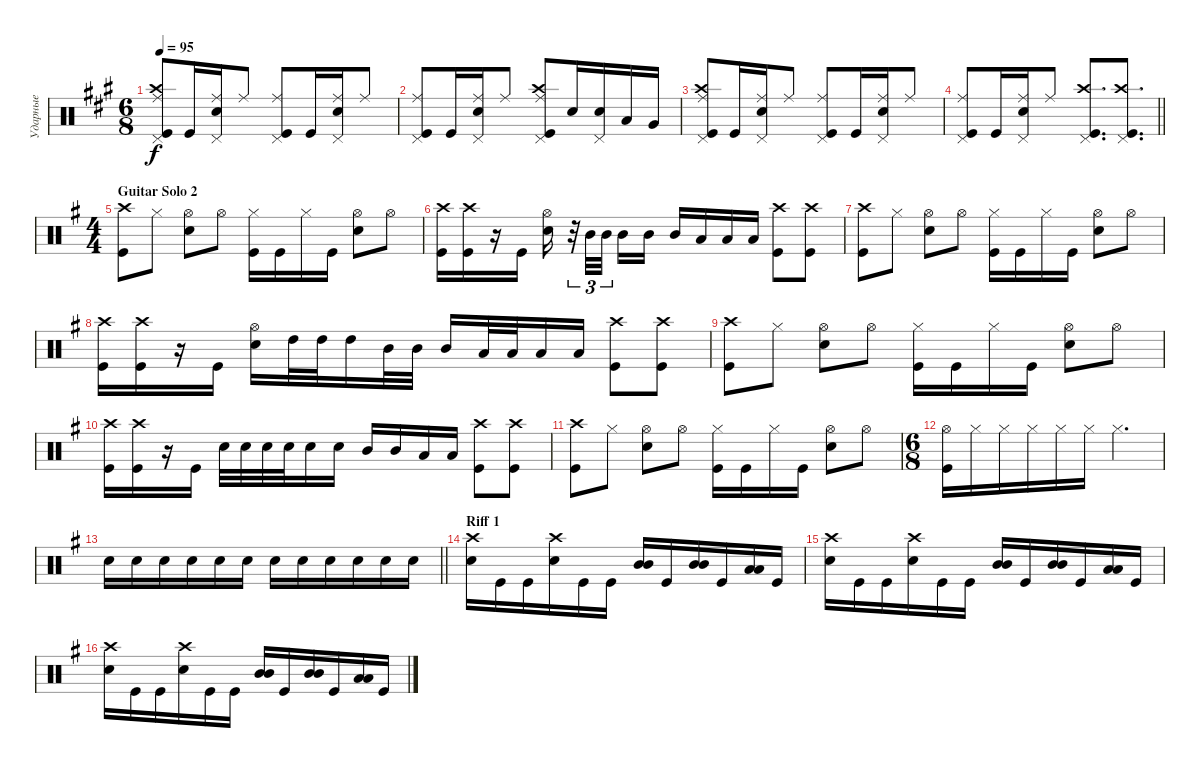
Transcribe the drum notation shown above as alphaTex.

\track ("Ударные" "Ударные") {instrument percussion}
\staff {score}
\articulation defaults
\ts (6 8)
\tempo 95
\clef neutral
\ks f#minor
("Kick (hit)" "Crash high (hit)" "Ride (middle)" "Pedal Hi-Hat (hit)").8{dy f} "Kick (hit)".16 ("Snare (hit) 2" "Ride (middle)" "Pedal Hi-Hat (hit)").16 "Ride (middle)".8 ("Kick (hit)" "Ride (middle)" "Pedal Hi-Hat (hit)").8 "Kick (hit)".16 ("Snare (hit) 2" "Ride (middle)" "Pedal Hi-Hat (hit)").16 "Ride (middle)".8 |
("Kick (hit)" "Pedal Hi-Hat (hit)" "Ride (middle)").8 "Kick (hit)".16 ("Snare (hit) 2" "Ride (middle)" "Pedal Hi-Hat (hit)").16 "Ride (middle)".8 ("Kick (hit)" "Ride (middle)" "Crash high (hit)" "Pedal Hi-Hat (hit)").8 "Snare (hit) 2".16 ("Snare (hit) 2" "Pedal Hi-Hat (hit)").16 "Low Tom (hit)".16 "Very Low Tom (hit)".16 |
("Kick (hit)" "Crash high (hit)" "Ride (middle)" "Pedal Hi-Hat (hit)").8 "Kick (hit)".16 ("Snare (hit) 2" "Ride (middle)" "Pedal Hi-Hat (hit)").16 "Ride (middle)".8 ("Kick (hit)" "Ride (middle)" "Pedal Hi-Hat (hit)").8 "Kick (hit)".16 ("Snare (hit) 2" "Ride (middle)" "Pedal Hi-Hat (hit)").16 "Ride (middle)".8 |
\barLineRight lightlight
("Kick (hit)" "Pedal Hi-Hat (hit)" "Ride (middle)").8 "Kick (hit)".16 ("Snare (hit) 2" "Ride (middle)" "Pedal Hi-Hat (hit)").16 "Ride (middle)".8 ("Kick (hit)" "Crash high (hit)" "Pedal Hi-Hat (hit)").8{d} ("Kick (hit)" "Crash high (hit)" "Pedal Hi-Hat (hit)").8{d} |
\ts (4 4)
\section ("" "Guitar Solo 2")
\ks eminor
("Kick (hit)" "Crash high (hit)").8 "Hi-Hat (closed)".8 ("Hi-Hat (open)" "Snare (hit) 2").8 "Hi-Hat (open)".8 ("Hi-Hat (closed)" "Kick (hit)").16 "Kick (hit)".16 "Hi-Hat (closed)".16 "Kick (hit)".16 ("Snare (hit) 2" "Hi-Hat (open)").8 "Hi-Hat (open)".8 |
("Kick (hit)" "Crash high (hit)").16 ("Kick (hit)" "Crash high (hit)").16 r.16 "Kick (hit)".16 ("Snare (hit) 2" "Hi-Hat (open)").16 r.32{tu (3 2)} "Mid Tom (hit)".32{tu (3 2)} "Mid Tom (hit)".32{tu (3 2) beam splitsecondary} "Mid Tom (hit)".16 "Mid Tom (hit)".16 "Mid Tom (hit)".16 "Low Tom (hit)".16 "Low Tom (hit)".16 "Low Tom (hit)".16 ("Kick (hit)" "Crash high (hit)").8 ("Kick (hit)" "Crash high (hit)").8 |
("Kick (hit)" "Crash high (hit)").8 "Hi-Hat (closed)".8 ("Hi-Hat (open)" "Snare (hit) 2").8 "Hi-Hat (open)".8 ("Hi-Hat (closed)" "Kick (hit)").16 "Kick (hit)".16 "Hi-Hat (closed)".16 "Kick (hit)".16 ("Snare (hit) 2" "Hi-Hat (open)").8 "Hi-Hat (open)".8 |
("Kick (hit)" "Crash high (hit)").16 ("Kick (hit)" "Crash high (hit)").16 r.16 "Kick (hit)".16 ("Snare (hit) 2" "Hi-Hat (open)").16 "High Tom (hit)".32 "High Tom (hit)".32 "High Tom (hit)".16 "Mid Tom (hit)".32 "Mid Tom (hit)".32 "Mid Tom (hit)".16 "Low Tom (hit)".32 "Low Tom (hit)".32 "Low Tom (hit)".16 "Low Tom (hit)".16 ("Kick (hit)" "Crash high (hit)").8 ("Kick (hit)" "Crash high (hit)").8 |
("Kick (hit)" "Crash high (hit)").8 "Hi-Hat (closed)".8 ("Hi-Hat (open)" "Snare (hit) 2").8 "Hi-Hat (open)".8 ("Hi-Hat (closed)" "Kick (hit)").16 "Kick (hit)".16 "Hi-Hat (closed)".16 "Kick (hit)".16 ("Snare (hit) 2" "Hi-Hat (open)").8 "Hi-Hat (open)".8 |
("Kick (hit)" "Crash high (hit)").16 ("Kick (hit)" "Crash high (hit)").16 r.16 "Kick (hit)".16 "Snare (hit) 2".32 "Snare (hit) 2".32 "Snare (hit) 2".32 "Snare (hit) 2".32 "Snare (hit) 2".16 "Snare (hit) 2".16 "Mid Tom (hit)".16 "Mid Tom (hit)".16 "Low Tom (hit)".16 "Low Tom (hit)".16 ("Kick (hit)" "Crash high (hit)").8 ("Kick (hit)" "Crash high (hit)").8 |
("Kick (hit)" "Crash high (hit)").8 "Hi-Hat (closed)".8 ("Hi-Hat (open)" "Snare (hit) 2").8 "Hi-Hat (open)".8 ("Hi-Hat (closed)" "Kick (hit)").16 "Kick (hit)".16 "Hi-Hat (closed)".16 "Kick (hit)".16 ("Snare (hit) 2" "Hi-Hat (open)").8 "Hi-Hat (open)".8 |
\ts (6 8)
("Kick (hit)" "Hi-Hat (open)").16 "Hi-Hat (closed)".16 "Hi-Hat (closed)".16 "Hi-Hat (closed)".16 "Hi-Hat (closed)".16 "Hi-Hat (closed)".16 "Hi-Hat (closed)".4{d} |
\barLineRight lightlight "Snare (hit) 2".16 "Snare (hit) 2".16 "Snare (hit) 2".16 "Snare (hit) 2".16 "Snare (hit) 2".16 "Snare (hit) 2".16 "Snare (hit) 2".16 "Snare (hit) 2".16 "Snare (hit) 2".16 "Snare (hit) 2".16 "Snare (hit) 2".16 "Snare (hit) 2".16
|
\section ("" "Riff 1")
("Snare (hit) 2" "Crash high (hit)").16 "Kick (hit)".16 "Kick (hit)".16 ("Snare (hit) 2" "Crash high (hit)").16 "Kick (hit)".16 "Kick (hit)".16 ("Mid Tom (hit)" "Mid Tom (hit)").16{bd 240} "Kick (hit)".16 ("Mid Tom (hit)" "Mid Tom (hit)").16{bd 240} "Kick (hit)".16 ("Low Tom (hit)" "Low Tom (hit)").16{bd 240} "Kick (hit)".16 |
("Snare (hit) 2" "Crash high (hit)").16 "Kick (hit)".16 "Kick (hit)".16 ("Snare (hit) 2" "Crash high (hit)").16 "Kick (hit)".16 "Kick (hit)".16 ("Mid Tom (hit)" "Mid Tom (hit)").16{bd 240} "Kick (hit)".16 ("Mid Tom (hit)" "Mid Tom (hit)").16{bd 240} "Kick (hit)".16 ("Low Tom (hit)" "Low Tom (hit)").16{bd 240} "Kick (hit)".16 |
("Snare (hit) 2" "Crash high (hit)").16 "Kick (hit)".16 "Kick (hit)".16 ("Snare (hit) 2" "Crash high (hit)").16 "Kick (hit)".16 "Kick (hit)".16 ("Mid Tom (hit)" "Mid Tom (hit)").16{bd 240} "Kick (hit)".16 ("Mid Tom (hit)" "Mid Tom (hit)").16{bd 240} "Kick (hit)".16 ("Low Tom (hit)" "Low Tom (hit)").16{bd 240} "Kick (hit)".16
